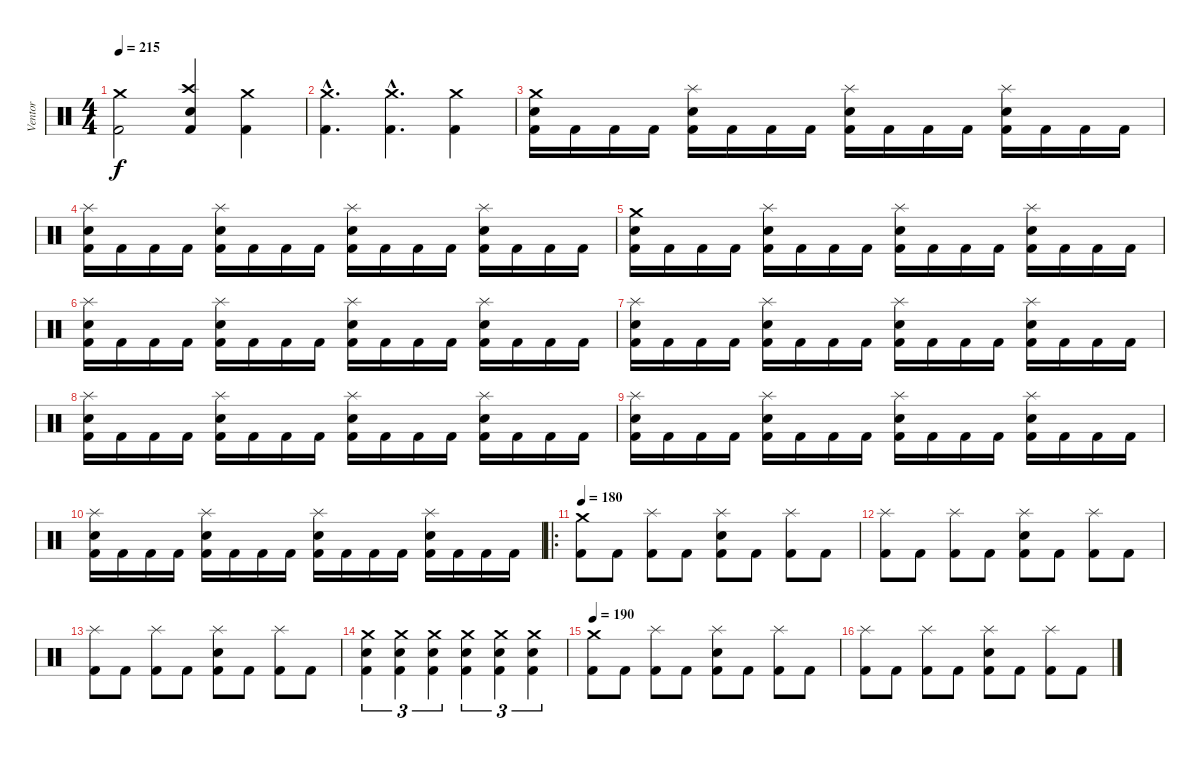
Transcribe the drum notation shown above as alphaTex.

\track ("Ventor" "Ventor") {instrument percussion}
\staff {score}
\articulation defaults
\ts (4 4)
\tempo 215
\clef neutral
\ks c
("Crash medium (hit)" "Kick (hit) 2").2{dy f} ("Crash high (hit)" "Electric Snare (hit)" "Kick (hit) 2").4 ("Crash medium (hit)" "Kick (hit) 2").4 |
("Crash medium (hit)"{hac} "Kick (hit) 2"{hac}).4{d} ("Crash medium (hit)"{hac} "Kick (hit) 2"{hac}).4{d} ("Crash medium (hit)" "Kick (hit) 2").4 |
("Crash medium (hit)" "Electric Snare (hit)" "Kick (hit) 2").16 "Kick (hit) 2".16 "Kick (hit) 2".16 "Kick (hit) 2".16 ("Splash (hit)" "Electric Snare (hit)" "Kick (hit) 2").16 "Kick (hit) 2".16 "Kick (hit) 2".16 "Kick (hit) 2".16 ("Splash (hit)" "Electric Snare (hit)" "Kick (hit) 2").16 "Kick (hit) 2".16 "Kick (hit) 2".16 "Kick (hit) 2".16 ("Splash (hit)" "Electric Snare (hit)" "Kick (hit) 2").16 "Kick (hit) 2".16 "Kick (hit) 2".16 "Kick (hit) 2".16 |
("Splash (hit)" "Electric Snare (hit)" "Kick (hit) 2").16 "Kick (hit) 2".16 "Kick (hit) 2".16 "Kick (hit) 2".16 ("Splash (hit)" "Electric Snare (hit)" "Kick (hit) 2").16 "Kick (hit) 2".16 "Kick (hit) 2".16 "Kick (hit) 2".16 ("Splash (hit)" "Electric Snare (hit)" "Kick (hit) 2").16 "Kick (hit) 2".16 "Kick (hit) 2".16 "Kick (hit) 2".16 ("Splash (hit)" "Electric Snare (hit)" "Kick (hit) 2").16 "Kick (hit) 2".16 "Kick (hit) 2".16 "Kick (hit) 2".16 |
("Crash medium (hit)" "Electric Snare (hit)" "Kick (hit) 2").16 "Kick (hit) 2".16 "Kick (hit) 2".16 "Kick (hit) 2".16 ("Splash (hit)" "Electric Snare (hit)" "Kick (hit) 2").16 "Kick (hit) 2".16 "Kick (hit) 2".16 "Kick (hit) 2".16 ("Splash (hit)" "Electric Snare (hit)" "Kick (hit) 2").16 "Kick (hit) 2".16 "Kick (hit) 2".16 "Kick (hit) 2".16 ("Splash (hit)" "Electric Snare (hit)" "Kick (hit) 2").16 "Kick (hit) 2".16 "Kick (hit) 2".16 "Kick (hit) 2".16 |
("Splash (hit)" "Electric Snare (hit)" "Kick (hit) 2").16 "Kick (hit) 2".16 "Kick (hit) 2".16 "Kick (hit) 2".16 ("Splash (hit)" "Electric Snare (hit)" "Kick (hit) 2").16 "Kick (hit) 2".16 "Kick (hit) 2".16 "Kick (hit) 2".16 ("Splash (hit)" "Electric Snare (hit)" "Kick (hit) 2").16 "Kick (hit) 2".16 "Kick (hit) 2".16 "Kick (hit) 2".16 ("Splash (hit)" "Electric Snare (hit)" "Kick (hit) 2").16 "Kick (hit) 2".16 "Kick (hit) 2".16 "Kick (hit) 2".16 |
("Splash (hit)" "Electric Snare (hit)" "Kick (hit) 2").16 "Kick (hit) 2".16 "Kick (hit) 2".16 "Kick (hit) 2".16 ("Splash (hit)" "Electric Snare (hit)" "Kick (hit) 2").16 "Kick (hit) 2".16 "Kick (hit) 2".16 "Kick (hit) 2".16 ("Splash (hit)" "Electric Snare (hit)" "Kick (hit) 2").16 "Kick (hit) 2".16 "Kick (hit) 2".16 "Kick (hit) 2".16 ("Splash (hit)" "Electric Snare (hit)" "Kick (hit) 2").16 "Kick (hit) 2".16 "Kick (hit) 2".16 "Kick (hit) 2".16 |
("Splash (hit)" "Electric Snare (hit)" "Kick (hit) 2").16 "Kick (hit) 2".16 "Kick (hit) 2".16 "Kick (hit) 2".16 ("Splash (hit)" "Electric Snare (hit)" "Kick (hit) 2").16 "Kick (hit) 2".16 "Kick (hit) 2".16 "Kick (hit) 2".16 ("Splash (hit)" "Electric Snare (hit)" "Kick (hit) 2").16 "Kick (hit) 2".16 "Kick (hit) 2".16 "Kick (hit) 2".16 ("Splash (hit)" "Electric Snare (hit)" "Kick (hit) 2").16 "Kick (hit) 2".16 "Kick (hit) 2".16 "Kick (hit) 2".16 |
("Splash (hit)" "Electric Snare (hit)" "Kick (hit) 2").16 "Kick (hit) 2".16 "Kick (hit) 2".16 "Kick (hit) 2".16 ("Splash (hit)" "Electric Snare (hit)" "Kick (hit) 2").16 "Kick (hit) 2".16 "Kick (hit) 2".16 "Kick (hit) 2".16 ("Splash (hit)" "Electric Snare (hit)" "Kick (hit) 2").16 "Kick (hit) 2".16 "Kick (hit) 2".16 "Kick (hit) 2".16 ("Splash (hit)" "Electric Snare (hit)" "Kick (hit) 2").16 "Kick (hit) 2".16 "Kick (hit) 2".16 "Kick (hit) 2".16 |
("Splash (hit)" "Electric Snare (hit)" "Kick (hit) 2").16 "Kick (hit) 2".16 "Kick (hit) 2".16 "Kick (hit) 2".16 ("Splash (hit)" "Electric Snare (hit)" "Kick (hit) 2").16 "Kick (hit) 2".16 "Kick (hit) 2".16 "Kick (hit) 2".16 ("Splash (hit)" "Electric Snare (hit)" "Kick (hit) 2").16 "Kick (hit) 2".16 "Kick (hit) 2".16 "Kick (hit) 2".16 ("Splash (hit)" "Electric Snare (hit)" "Kick (hit) 2").16 "Kick (hit) 2".16 "Kick (hit) 2".16 "Kick (hit) 2".16 |
\ro
\tempo 180
("Crash medium (hit)" "Kick (hit) 2").8 "Kick (hit) 2".8 ("Splash (hit)" "Kick (hit) 2").8 "Kick (hit) 2".8 ("Splash (hit)" "Electric Snare (hit)" "Kick (hit) 2").8 "Kick (hit) 2".8 ("Splash (hit)" "Kick (hit) 2").8 "Kick (hit) 2".8 |
("Splash (hit)" "Kick (hit) 2").8 "Kick (hit) 2".8 ("Splash (hit)" "Kick (hit) 2").8 "Kick (hit) 2".8 ("Splash (hit)" "Electric Snare (hit)" "Kick (hit) 2").8 "Kick (hit) 2".8 ("Splash (hit)" "Kick (hit) 2").8 "Kick (hit) 2".8 |
("Splash (hit)" "Kick (hit) 2").8 "Kick (hit) 2".8 ("Splash (hit)" "Kick (hit) 2").8 "Kick (hit) 2".8 ("Splash (hit)" "Electric Snare (hit)" "Kick (hit) 2").8 "Kick (hit) 2".8 ("Splash (hit)" "Kick (hit) 2").8 "Kick (hit) 2".8 |
("Crash medium (hit)" "Electric Snare (hit)" "Kick (hit) 2").4{tu (3 2)} ("Crash medium (hit)" "Electric Snare (hit)" "Kick (hit) 2").4{tu (3 2)} ("Crash medium (hit)" "Electric Snare (hit)" "Kick (hit) 2").4{tu (3 2)} ("Crash medium (hit)" "Electric Snare (hit)" "Kick (hit) 2").4{tu (3 2)} ("Crash medium (hit)" "Electric Snare (hit)" "Kick (hit) 2").4{tu (3 2)} ("Crash medium (hit)" "Electric Snare (hit)" "Kick (hit) 2").4{tu (3 2)} |
\tempo 190
("Crash medium (hit)" "Kick (hit) 2").8 "Kick (hit) 2".8 ("Splash (hit)" "Kick (hit) 2").8 "Kick (hit) 2".8 ("Splash (hit)" "Electric Snare (hit)" "Kick (hit) 2").8 "Kick (hit) 2".8 ("Splash (hit)" "Kick (hit) 2").8 "Kick (hit) 2".8 |
("Splash (hit)" "Kick (hit) 2").8 "Kick (hit) 2".8 ("Splash (hit)" "Kick (hit) 2").8 "Kick (hit) 2".8 ("Splash (hit)" "Electric Snare (hit)" "Kick (hit) 2").8 "Kick (hit) 2".8 ("Splash (hit)" "Kick (hit) 2").8 "Kick (hit) 2".8
